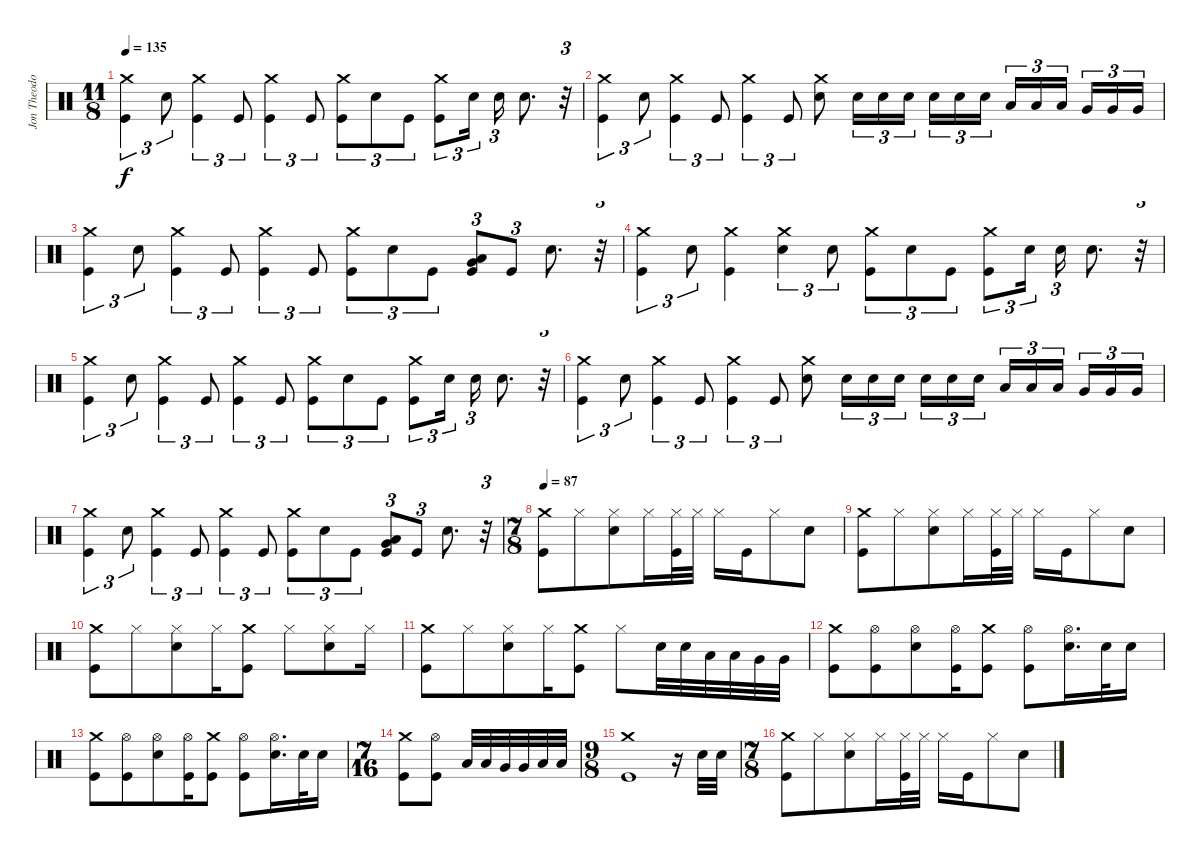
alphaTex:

\track ("Jon Theodore" "Jon Theodo") {instrument percussion}
\staff {score}
\articulation defaults
\ts (11 8)
\tempo 135
\clef neutral
\ks c
("Crash medium (hit)" "Kick (hit)").4{tu (3 2) dy f} "Snare (hit) 2".8{tu (3 2)} ("Crash medium (hit)" "Kick (hit)").4{tu (3 2)} "Kick (hit)".8{tu (3 2)} ("Crash medium (hit)" "Kick (hit)").4{tu (3 2)} "Kick (hit)".8{tu (3 2)} ("Crash medium (hit)" "Kick (hit)").8{tu (3 2)} "Snare (hit) 2".8{tu (3 2)} "Kick (hit)".8{tu (3 2)} ("Crash medium (hit)" "Kick (hit)").8{tu (3 2)} "Snare (hit) 2".16{tu (3 2)} "Snare (hit) 2".16{tu (3 2)} "Snare (hit) 2".8{d} r.32{tu (3 2)} |
("Crash medium (hit)" "Kick (hit)").4{tu (3 2)} "Snare (hit) 2".8{tu (3 2)} ("Crash medium (hit)" "Kick (hit)").4{tu (3 2)} "Kick (hit)".8{tu (3 2)} ("Crash medium (hit)" "Kick (hit)").4{tu (3 2)} "Kick (hit)".8{tu (3 2)} ("Crash medium (hit)" "Snare (hit) 2").8 "Snare (hit) 2".16{tu (3 2)} "Snare (hit) 2".16{tu (3 2)} "Snare (hit) 2".16{tu (3 2)} "Snare (hit) 2".16{tu (3 2)} "Snare (hit) 2".16{tu (3 2)} "Snare (hit) 2".16{tu (3 2)} "Low Tom (hit)".16{tu (3 2)} "Low Tom (hit)".16{tu (3 2)} "Low Tom (hit)".16{tu (3 2)} "Very Low Tom (hit)".16{tu (3 2)} "Very Low Tom (hit)".16{tu (3 2)} "Very Low Tom (hit)".16{tu (3 2)} |
("Crash medium (hit)" "Kick (hit)").4{tu (3 2)} "Snare (hit) 2".8{tu (3 2)} ("Crash medium (hit)" "Kick (hit)").4{tu (3 2)} "Kick (hit)".8{tu (3 2)} ("Crash medium (hit)" "Kick (hit)").4{tu (3 2)} "Kick (hit)".8{tu (3 2)} ("Crash medium (hit)" "Kick (hit)").8{tu (3 2)} "Snare (hit) 2".8{tu (3 2)} "Kick (hit)".8{tu (3 2)} ("Low Tom (hit)" "Very Low Tom (hit)" "Kick (hit)").8{tu (3 2)} "Kick (hit)".8{tu (3 2)} "Snare (hit) 2".8{d} r.32{tu (3 2)} |
("Crash medium (hit)" "Kick (hit)").4{tu (3 2)} "Snare (hit) 2".8{tu (3 2)} ("Crash medium (hit)" "Kick (hit)").4 ("Crash medium (hit)" "Snare (hit) 2").4{tu (3 2)} "Snare (hit) 2".8{tu (3 2)} ("Crash medium (hit)" "Kick (hit)").8{tu (3 2)} "Snare (hit) 2".8{tu (3 2)} "Kick (hit)".8{tu (3 2)} ("Crash medium (hit)" "Kick (hit)").8{tu (3 2)} "Snare (hit) 2".16{tu (3 2)} "Snare (hit) 2".16{tu (3 2)} "Snare (hit) 2".8{d} r.32{tu (3 2)} |
("Crash medium (hit)" "Kick (hit)").4{tu (3 2)} "Snare (hit) 2".8{tu (3 2)} ("Crash medium (hit)" "Kick (hit)").4{tu (3 2)} "Kick (hit)".8{tu (3 2)} ("Crash medium (hit)" "Kick (hit)").4{tu (3 2)} "Kick (hit)".8{tu (3 2)} ("Crash medium (hit)" "Kick (hit)").8{tu (3 2)} "Snare (hit) 2".8{tu (3 2)} "Kick (hit)".8{tu (3 2)} ("Crash medium (hit)" "Kick (hit)").8{tu (3 2)} "Snare (hit) 2".16{tu (3 2)} "Snare (hit) 2".16{tu (3 2)} "Snare (hit) 2".8{d} r.32{tu (3 2)} |
("Crash medium (hit)" "Kick (hit)").4{tu (3 2)} "Snare (hit) 2".8{tu (3 2)} ("Crash medium (hit)" "Kick (hit)").4{tu (3 2)} "Kick (hit)".8{tu (3 2)} ("Crash medium (hit)" "Kick (hit)").4{tu (3 2)} "Kick (hit)".8{tu (3 2)} ("Crash medium (hit)" "Snare (hit) 2").8 "Snare (hit) 2".16{tu (3 2)} "Snare (hit) 2".16{tu (3 2)} "Snare (hit) 2".16{tu (3 2)} "Snare (hit) 2".16{tu (3 2)} "Snare (hit) 2".16{tu (3 2)} "Snare (hit) 2".16{tu (3 2)} "Low Tom (hit)".16{tu (3 2)} "Low Tom (hit)".16{tu (3 2)} "Low Tom (hit)".16{tu (3 2)} "Very Low Tom (hit)".16{tu (3 2)} "Very Low Tom (hit)".16{tu (3 2)} "Very Low Tom (hit)".16{tu (3 2)} |
("Crash medium (hit)" "Kick (hit)").4{tu (3 2)} "Snare (hit) 2".8{tu (3 2)} ("Crash medium (hit)" "Kick (hit)").4{tu (3 2)} "Kick (hit)".8{tu (3 2)} ("Crash medium (hit)" "Kick (hit)").4{tu (3 2)} "Kick (hit)".8{tu (3 2)} ("Crash medium (hit)" "Kick (hit)").8{tu (3 2)} "Snare (hit) 2".8{tu (3 2)} "Kick (hit)".8{tu (3 2)} ("Low Tom (hit)" "Very Low Tom (hit)" "Kick (hit)").8{tu (3 2)} "Kick (hit)".8{tu (3 2)} "Snare (hit) 2".8{d} r.32{tu (3 2)} |
\ts (7 8)
\tempo 87
("Crash medium (hit)" "Kick (hit)").8 "Hi-Hat (closed)".8 ("Hi-Hat (closed)" "Snare (hit) 2").8 "Hi-Hat (closed)".16 ("Hi-Hat (closed)" "Kick (hit)").32 "Hi-Hat (closed)".32 "Hi-Hat (closed)".16 "Kick (hit)".16 "Hi-Hat (closed)".8 "Snare (hit) 2".8 |
("Crash medium (hit)" "Kick (hit)").8 "Hi-Hat (closed)".8 ("Hi-Hat (closed)" "Snare (hit) 2").8 "Hi-Hat (closed)".16 ("Hi-Hat (closed)" "Kick (hit)").32 "Hi-Hat (closed)".32 "Hi-Hat (closed)".16 "Kick (hit)".16 "Hi-Hat (closed)".8 "Snare (hit) 2".8 |
("Crash medium (hit)" "Kick (hit)").8 "Hi-Hat (closed)".8 ("Hi-Hat (closed)" "Snare (hit) 2").8 "Hi-Hat (closed)".16 ("Crash medium (hit)" "Kick (hit)").8 "Hi-Hat (closed)".8 ("Hi-Hat (closed)" "Snare (hit) 2").8 "Hi-Hat (closed)".16 |
("Crash medium (hit)" "Kick (hit)").8 "Hi-Hat (closed)".8 ("Hi-Hat (closed)" "Snare (hit) 2").8 "Hi-Hat (closed)".16 ("Crash medium (hit)" "Kick (hit)").8 "Hi-Hat (closed)".8 "Snare (hit) 2".32 "Snare (hit) 2".32 "Low Tom (hit)".32 "Low Tom (hit)".32 "Very Low Tom (hit)".32 "Very Low Tom (hit)".32 |
("Crash medium (hit)" "Kick (hit)").8 ("Hi-Hat (open)" "Kick (hit)").8 ("Hi-Hat (open)" "Snare (hit) 2").8 ("Hi-Hat (open)" "Kick (hit)").16 ("Crash medium (hit)" "Kick (hit)").8 ("Hi-Hat (open)" "Kick (hit)").8 ("Hi-Hat (open)" "Snare (hit) 2").16{d} "Snare (hit) 2".32 "Snare (hit) 2".16 |
("Crash medium (hit)" "Kick (hit)").8 ("Hi-Hat (open)" "Kick (hit)").8 ("Hi-Hat (open)" "Snare (hit) 2").8 ("Hi-Hat (open)" "Kick (hit)").16 ("Crash medium (hit)" "Kick (hit)").8 ("Hi-Hat (open)" "Kick (hit)").8 ("Hi-Hat (open)" "Snare (hit) 2").16{d} "Snare (hit) 2".32 "Snare (hit) 2".16 |
\ts (7 16)
("Crash medium (hit)" "Kick (hit)").8 ("Hi-Hat (open)" "Kick (hit)").8 "Low Tom (hit)".32 "Low Tom (hit)".32 "Very Low Tom (hit)".32 "Very Low Tom (hit)".32 "Low Floor Tom (hit)".32 "Low Floor Tom (hit)".32 |
\ts (9 8)
("Crash medium (hit)" "Kick (hit)").1 r.16 "Snare (hit) 2".32 "Snare (hit) 2".32 |
\ts (7 8)
("Crash medium (hit)" "Kick (hit)").8 "Hi-Hat (closed)".8 ("Hi-Hat (closed)" "Snare (hit) 2").8 "Hi-Hat (closed)".16 ("Hi-Hat (closed)" "Kick (hit)").32 "Hi-Hat (closed)".32 "Hi-Hat (closed)".16 "Kick (hit)".16 "Hi-Hat (closed)".8 "Snare (hit) 2".8
